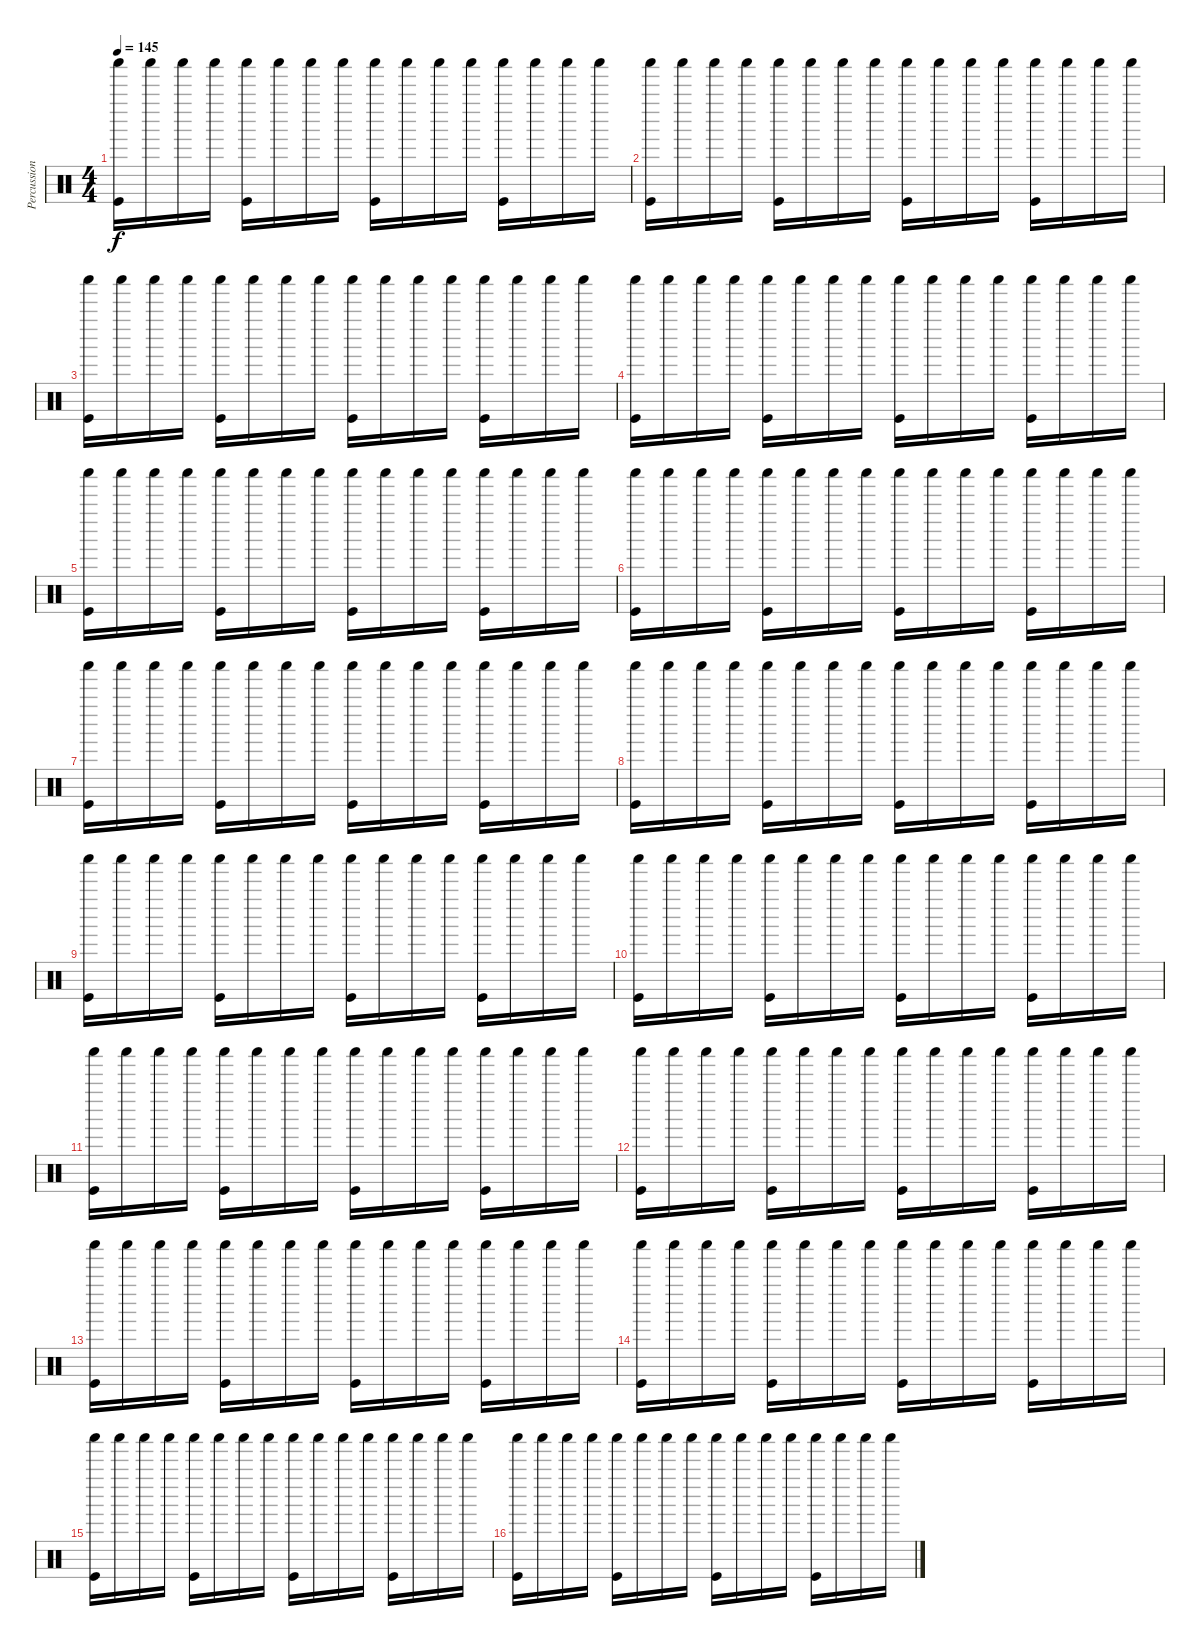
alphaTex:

\track ("Percussions" "Percussion") {instrument percussion}
\staff {score}
\articulation defaults
\ts (4 4)
\tempo 145
\clef neutral
\ks c
("Shaker (hit)" "Kick (hit)").16{dy f} "Shaker (hit)".16 "Shaker (hit)".16 "Shaker (hit)".16 ("Shaker (hit)" "Kick (hit)").16 "Shaker (hit)".16 "Shaker (hit)".16 "Shaker (hit)".16 ("Shaker (hit)" "Kick (hit)").16 "Shaker (hit)".16 "Shaker (hit)".16 "Shaker (hit)".16 ("Shaker (hit)" "Kick (hit)").16 "Shaker (hit)".16 "Shaker (hit)".16 "Shaker (hit)".16 |
("Shaker (hit)" "Kick (hit)").16 "Shaker (hit)".16 "Shaker (hit)".16 "Shaker (hit)".16 ("Shaker (hit)" "Kick (hit)").16 "Shaker (hit)".16 "Shaker (hit)".16 "Shaker (hit)".16 ("Shaker (hit)" "Kick (hit)").16 "Shaker (hit)".16 "Shaker (hit)".16 "Shaker (hit)".16 ("Shaker (hit)" "Kick (hit)").16 "Shaker (hit)".16 "Shaker (hit)".16 "Shaker (hit)".16 |
("Shaker (hit)" "Kick (hit)").16 "Shaker (hit)".16 "Shaker (hit)".16 "Shaker (hit)".16 ("Shaker (hit)" "Kick (hit)").16 "Shaker (hit)".16 "Shaker (hit)".16 "Shaker (hit)".16 ("Shaker (hit)" "Kick (hit)").16 "Shaker (hit)".16 "Shaker (hit)".16 "Shaker (hit)".16 ("Shaker (hit)" "Kick (hit)").16 "Shaker (hit)".16 "Shaker (hit)".16 "Shaker (hit)".16 |
("Shaker (hit)" "Kick (hit)").16 "Shaker (hit)".16 "Shaker (hit)".16 "Shaker (hit)".16 ("Shaker (hit)" "Kick (hit)").16 "Shaker (hit)".16 "Shaker (hit)".16 "Shaker (hit)".16 ("Shaker (hit)" "Kick (hit)").16 "Shaker (hit)".16 "Shaker (hit)".16 "Shaker (hit)".16 ("Shaker (hit)" "Kick (hit)").16 "Shaker (hit)".16 "Shaker (hit)".16 "Shaker (hit)".16 |
("Shaker (hit)" "Kick (hit)").16 "Shaker (hit)".16 "Shaker (hit)".16 "Shaker (hit)".16 ("Shaker (hit)" "Kick (hit)").16 "Shaker (hit)".16 "Shaker (hit)".16 "Shaker (hit)".16 ("Shaker (hit)" "Kick (hit)").16 "Shaker (hit)".16 "Shaker (hit)".16 "Shaker (hit)".16 ("Shaker (hit)" "Kick (hit)").16 "Shaker (hit)".16 "Shaker (hit)".16 "Shaker (hit)".16 |
("Shaker (hit)" "Kick (hit)").16 "Shaker (hit)".16 "Shaker (hit)".16 "Shaker (hit)".16 ("Shaker (hit)" "Kick (hit)").16 "Shaker (hit)".16 "Shaker (hit)".16 "Shaker (hit)".16 ("Shaker (hit)" "Kick (hit)").16 "Shaker (hit)".16 "Shaker (hit)".16 "Shaker (hit)".16 ("Shaker (hit)" "Kick (hit)").16 "Shaker (hit)".16 "Shaker (hit)".16 "Shaker (hit)".16 |
("Shaker (hit)" "Kick (hit)").16 "Shaker (hit)".16 "Shaker (hit)".16 "Shaker (hit)".16 ("Shaker (hit)" "Kick (hit)").16 "Shaker (hit)".16 "Shaker (hit)".16 "Shaker (hit)".16 ("Shaker (hit)" "Kick (hit)").16 "Shaker (hit)".16 "Shaker (hit)".16 "Shaker (hit)".16 ("Shaker (hit)" "Kick (hit)").16 "Shaker (hit)".16 "Shaker (hit)".16 "Shaker (hit)".16 |
("Shaker (hit)" "Kick (hit)").16 "Shaker (hit)".16 "Shaker (hit)".16 "Shaker (hit)".16 ("Shaker (hit)" "Kick (hit)").16 "Shaker (hit)".16 "Shaker (hit)".16 "Shaker (hit)".16 ("Shaker (hit)" "Kick (hit)").16 "Shaker (hit)".16 "Shaker (hit)".16 "Shaker (hit)".16 ("Shaker (hit)" "Kick (hit)").16 "Shaker (hit)".16 "Shaker (hit)".16 "Shaker (hit)".16 |
("Shaker (hit)" "Kick (hit)").16 "Shaker (hit)".16 "Shaker (hit)".16 "Shaker (hit)".16 ("Shaker (hit)" "Kick (hit)").16 "Shaker (hit)".16 "Shaker (hit)".16 "Shaker (hit)".16 ("Shaker (hit)" "Kick (hit)").16 "Shaker (hit)".16 "Shaker (hit)".16 "Shaker (hit)".16 ("Shaker (hit)" "Kick (hit)").16 "Shaker (hit)".16 "Shaker (hit)".16 "Shaker (hit)".16 |
("Shaker (hit)" "Kick (hit)").16 "Shaker (hit)".16 "Shaker (hit)".16 "Shaker (hit)".16 ("Shaker (hit)" "Kick (hit)").16 "Shaker (hit)".16 "Shaker (hit)".16 "Shaker (hit)".16 ("Shaker (hit)" "Kick (hit)").16 "Shaker (hit)".16 "Shaker (hit)".16 "Shaker (hit)".16 ("Shaker (hit)" "Kick (hit)").16 "Shaker (hit)".16 "Shaker (hit)".16 "Shaker (hit)".16 |
("Shaker (hit)" "Kick (hit)").16 "Shaker (hit)".16 "Shaker (hit)".16 "Shaker (hit)".16 ("Shaker (hit)" "Kick (hit)").16 "Shaker (hit)".16 "Shaker (hit)".16 "Shaker (hit)".16 ("Shaker (hit)" "Kick (hit)").16 "Shaker (hit)".16 "Shaker (hit)".16 "Shaker (hit)".16 ("Shaker (hit)" "Kick (hit)").16 "Shaker (hit)".16 "Shaker (hit)".16 "Shaker (hit)".16 |
("Shaker (hit)" "Kick (hit)").16 "Shaker (hit)".16 "Shaker (hit)".16 "Shaker (hit)".16 ("Shaker (hit)" "Kick (hit)").16 "Shaker (hit)".16 "Shaker (hit)".16 "Shaker (hit)".16 ("Shaker (hit)" "Kick (hit)").16 "Shaker (hit)".16 "Shaker (hit)".16 "Shaker (hit)".16 ("Shaker (hit)" "Kick (hit)").16 "Shaker (hit)".16 "Shaker (hit)".16 "Shaker (hit)".16 |
("Shaker (hit)" "Kick (hit)").16 "Shaker (hit)".16 "Shaker (hit)".16 "Shaker (hit)".16 ("Shaker (hit)" "Kick (hit)").16 "Shaker (hit)".16 "Shaker (hit)".16 "Shaker (hit)".16 ("Shaker (hit)" "Kick (hit)").16 "Shaker (hit)".16 "Shaker (hit)".16 "Shaker (hit)".16 ("Shaker (hit)" "Kick (hit)").16 "Shaker (hit)".16 "Shaker (hit)".16 "Shaker (hit)".16 |
("Shaker (hit)" "Kick (hit)").16 "Shaker (hit)".16 "Shaker (hit)".16 "Shaker (hit)".16 ("Shaker (hit)" "Kick (hit)").16 "Shaker (hit)".16 "Shaker (hit)".16 "Shaker (hit)".16 ("Shaker (hit)" "Kick (hit)").16 "Shaker (hit)".16 "Shaker (hit)".16 "Shaker (hit)".16 ("Shaker (hit)" "Kick (hit)").16 "Shaker (hit)".16 "Shaker (hit)".16 "Shaker (hit)".16 |
("Shaker (hit)" "Kick (hit)").16 "Shaker (hit)".16 "Shaker (hit)".16 "Shaker (hit)".16 ("Shaker (hit)" "Kick (hit)").16 "Shaker (hit)".16 "Shaker (hit)".16 "Shaker (hit)".16 ("Shaker (hit)" "Kick (hit)").16 "Shaker (hit)".16 "Shaker (hit)".16 "Shaker (hit)".16 ("Shaker (hit)" "Kick (hit)").16 "Shaker (hit)".16 "Shaker (hit)".16 "Shaker (hit)".16 |
("Shaker (hit)" "Kick (hit)").16 "Shaker (hit)".16 "Shaker (hit)".16 "Shaker (hit)".16 ("Shaker (hit)" "Kick (hit)").16 "Shaker (hit)".16 "Shaker (hit)".16 "Shaker (hit)".16 ("Shaker (hit)" "Kick (hit)").16 "Shaker (hit)".16 "Shaker (hit)".16 "Shaker (hit)".16 ("Shaker (hit)" "Kick (hit)").16 "Shaker (hit)".16 "Shaker (hit)".16 "Shaker (hit)".16
